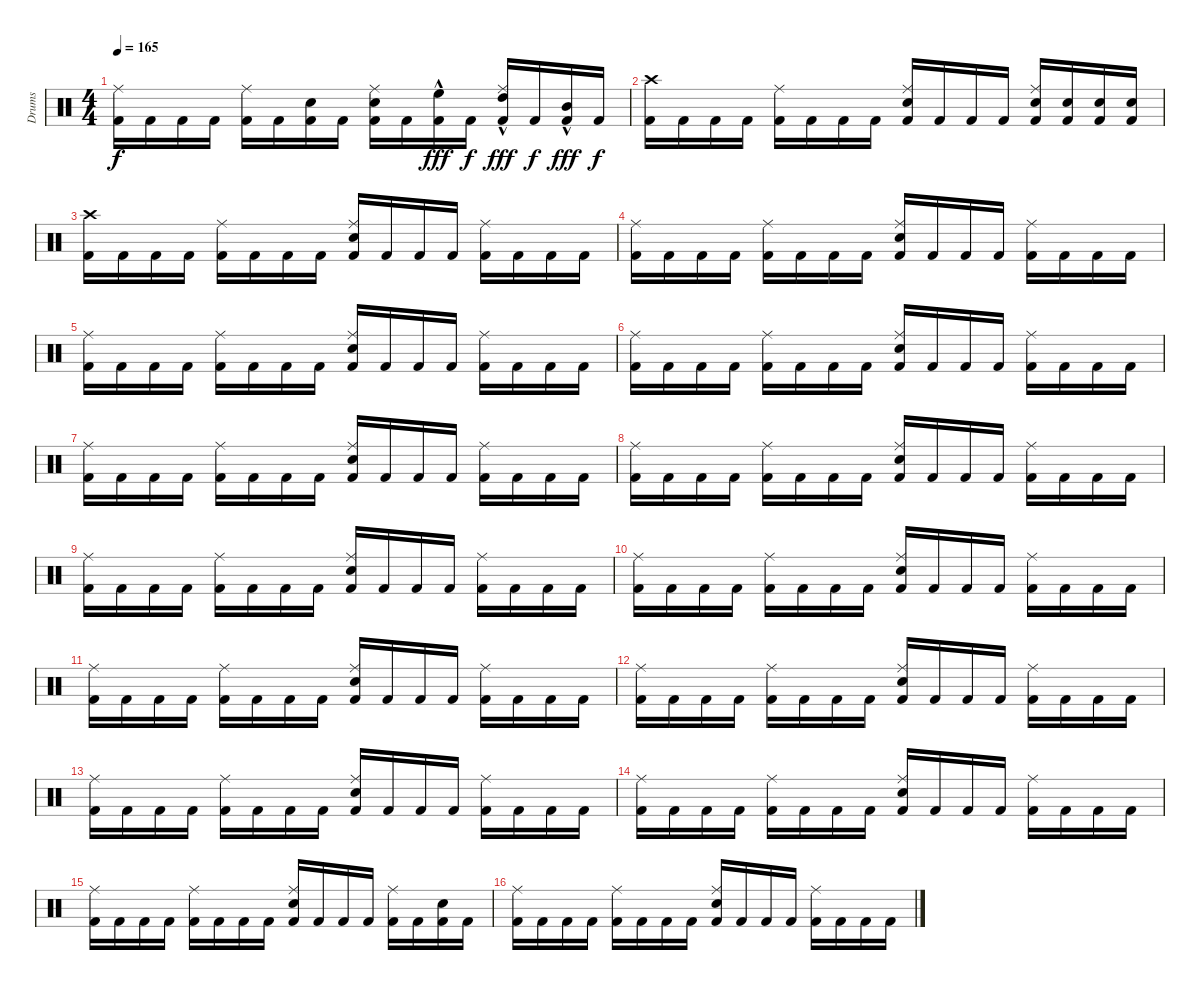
\track ("Drums" "Drums") {instrument percussion}
\staff {score}
\articulation defaults
\ts (4 4)
\tempo 165
\clef neutral
\ks aminor
("Kick (hit) 2" "Ride (middle)").16{dy f} "Kick (hit) 2".16 "Kick (hit) 2".16 "Kick (hit) 2".16 ("Kick (hit) 2" "Ride (middle)").16 "Kick (hit) 2".16 ("Kick (hit) 2" "Electric Snare (hit)").16 "Kick (hit) 2".16 ("Kick (hit) 2" "Electric Snare (hit)" "Ride (middle)").16 "Kick (hit) 2".16 ("Kick (hit) 2" "High Floor Tom (hit)"{hac}).16{dy fff} "Kick (hit) 2".16{dy f} ("Kick (hit) 2" "Ride (middle)" "High Tom (hit)"{hac}).16{dy fff} "Kick (hit) 2".16{dy f} ("Kick (hit) 2" "Mid Tom (hit)"{hac}).16{dy fff} "Kick (hit) 2".16{dy f} |
("Kick (hit) 2" "Crash high (hit)").16 "Kick (hit) 2".16 "Kick (hit) 2".16 "Kick (hit) 2".16 ("Kick (hit) 2" "Ride (middle)").16 "Kick (hit) 2".16 "Kick (hit) 2".16 "Kick (hit) 2".16 ("Kick (hit) 2" "Electric Snare (hit)" "Ride (middle)").16 "Kick (hit) 2".16 "Kick (hit) 2".16 "Kick (hit) 2".16 ("Kick (hit) 2" "Electric Snare (hit)" "Ride (middle)").16 ("Kick (hit) 2" "Electric Snare (hit)").16 ("Kick (hit) 2" "Electric Snare (hit)").16 ("Kick (hit) 2" "Electric Snare (hit)").16 |
("Kick (hit) 2" "Crash high (hit)").16 "Kick (hit) 2".16 "Kick (hit) 2".16 "Kick (hit) 2".16 ("Kick (hit) 2" "Ride (middle)").16 "Kick (hit) 2".16 "Kick (hit) 2".16 "Kick (hit) 2".16 ("Kick (hit) 2" "Electric Snare (hit)" "Ride (middle)").16 "Kick (hit) 2".16 "Kick (hit) 2".16 "Kick (hit) 2".16 ("Kick (hit) 2" "Ride (middle)").16 "Kick (hit) 2".16 "Kick (hit) 2".16 "Kick (hit) 2".16 |
("Kick (hit) 2" "Ride (middle)").16 "Kick (hit) 2".16 "Kick (hit) 2".16 "Kick (hit) 2".16 ("Kick (hit) 2" "Ride (middle)").16 "Kick (hit) 2".16 "Kick (hit) 2".16 "Kick (hit) 2".16 ("Kick (hit) 2" "Electric Snare (hit)" "Ride (middle)").16 "Kick (hit) 2".16 "Kick (hit) 2".16 "Kick (hit) 2".16 ("Kick (hit) 2" "Ride (middle)").16 "Kick (hit) 2".16 "Kick (hit) 2".16 "Kick (hit) 2".16 |
("Kick (hit) 2" "Ride (middle)").16 "Kick (hit) 2".16 "Kick (hit) 2".16 "Kick (hit) 2".16 ("Kick (hit) 2" "Ride (middle)").16 "Kick (hit) 2".16 "Kick (hit) 2".16 "Kick (hit) 2".16 ("Kick (hit) 2" "Electric Snare (hit)" "Ride (middle)").16 "Kick (hit) 2".16 "Kick (hit) 2".16 "Kick (hit) 2".16 ("Kick (hit) 2" "Ride (middle)").16 "Kick (hit) 2".16 "Kick (hit) 2".16 "Kick (hit) 2".16 |
("Kick (hit) 2" "Ride (middle)").16 "Kick (hit) 2".16 "Kick (hit) 2".16 "Kick (hit) 2".16 ("Kick (hit) 2" "Ride (middle)").16 "Kick (hit) 2".16 "Kick (hit) 2".16 "Kick (hit) 2".16 ("Kick (hit) 2" "Electric Snare (hit)" "Ride (middle)").16 "Kick (hit) 2".16 "Kick (hit) 2".16 "Kick (hit) 2".16 ("Kick (hit) 2" "Ride (middle)").16 "Kick (hit) 2".16 "Kick (hit) 2".16 "Kick (hit) 2".16 |
("Kick (hit) 2" "Ride (middle)").16 "Kick (hit) 2".16 "Kick (hit) 2".16 "Kick (hit) 2".16 ("Kick (hit) 2" "Ride (middle)").16 "Kick (hit) 2".16 "Kick (hit) 2".16 "Kick (hit) 2".16 ("Kick (hit) 2" "Electric Snare (hit)" "Ride (middle)").16 "Kick (hit) 2".16 "Kick (hit) 2".16 "Kick (hit) 2".16 ("Kick (hit) 2" "Ride (middle)").16 "Kick (hit) 2".16 "Kick (hit) 2".16 "Kick (hit) 2".16 |
("Kick (hit) 2" "Ride (middle)").16 "Kick (hit) 2".16 "Kick (hit) 2".16 "Kick (hit) 2".16 ("Kick (hit) 2" "Ride (middle)").16 "Kick (hit) 2".16 "Kick (hit) 2".16 "Kick (hit) 2".16 ("Kick (hit) 2" "Electric Snare (hit)" "Ride (middle)").16 "Kick (hit) 2".16 "Kick (hit) 2".16 "Kick (hit) 2".16 ("Kick (hit) 2" "Ride (middle)").16 "Kick (hit) 2".16 "Kick (hit) 2".16 "Kick (hit) 2".16 |
("Kick (hit) 2" "Ride (middle)").16 "Kick (hit) 2".16 "Kick (hit) 2".16 "Kick (hit) 2".16 ("Kick (hit) 2" "Ride (middle)").16 "Kick (hit) 2".16 "Kick (hit) 2".16 "Kick (hit) 2".16 ("Kick (hit) 2" "Electric Snare (hit)" "Ride (middle)").16 "Kick (hit) 2".16 "Kick (hit) 2".16 "Kick (hit) 2".16 ("Kick (hit) 2" "Ride (middle)").16 "Kick (hit) 2".16 "Kick (hit) 2".16 "Kick (hit) 2".16 |
("Kick (hit) 2" "Ride (middle)").16 "Kick (hit) 2".16 "Kick (hit) 2".16 "Kick (hit) 2".16 ("Kick (hit) 2" "Ride (middle)").16 "Kick (hit) 2".16 "Kick (hit) 2".16 "Kick (hit) 2".16 ("Kick (hit) 2" "Electric Snare (hit)" "Ride (middle)").16 "Kick (hit) 2".16 "Kick (hit) 2".16 "Kick (hit) 2".16 ("Kick (hit) 2" "Ride (middle)").16 "Kick (hit) 2".16 "Kick (hit) 2".16 "Kick (hit) 2".16 |
("Kick (hit) 2" "Ride (middle)").16 "Kick (hit) 2".16 "Kick (hit) 2".16 "Kick (hit) 2".16 ("Kick (hit) 2" "Ride (middle)").16 "Kick (hit) 2".16 "Kick (hit) 2".16 "Kick (hit) 2".16 ("Kick (hit) 2" "Electric Snare (hit)" "Ride (middle)").16 "Kick (hit) 2".16 "Kick (hit) 2".16 "Kick (hit) 2".16 ("Kick (hit) 2" "Ride (middle)").16 "Kick (hit) 2".16 "Kick (hit) 2".16 "Kick (hit) 2".16 |
("Kick (hit) 2" "Ride (middle)").16 "Kick (hit) 2".16 "Kick (hit) 2".16 "Kick (hit) 2".16 ("Kick (hit) 2" "Ride (middle)").16 "Kick (hit) 2".16 "Kick (hit) 2".16 "Kick (hit) 2".16 ("Kick (hit) 2" "Electric Snare (hit)" "Ride (middle)").16 "Kick (hit) 2".16 "Kick (hit) 2".16 "Kick (hit) 2".16 ("Kick (hit) 2" "Ride (middle)").16 "Kick (hit) 2".16 "Kick (hit) 2".16 "Kick (hit) 2".16 |
("Kick (hit) 2" "Ride (middle)").16 "Kick (hit) 2".16 "Kick (hit) 2".16 "Kick (hit) 2".16 ("Kick (hit) 2" "Ride (middle)").16 "Kick (hit) 2".16 "Kick (hit) 2".16 "Kick (hit) 2".16 ("Kick (hit) 2" "Electric Snare (hit)" "Ride (middle)").16 "Kick (hit) 2".16 "Kick (hit) 2".16 "Kick (hit) 2".16 ("Kick (hit) 2" "Ride (middle)").16 "Kick (hit) 2".16 "Kick (hit) 2".16 "Kick (hit) 2".16 |
("Kick (hit) 2" "Ride (middle)").16{volume 10} "Kick (hit) 2".16 "Kick (hit) 2".16 "Kick (hit) 2".16 ("Kick (hit) 2" "Ride (middle)").16 "Kick (hit) 2".16 "Kick (hit) 2".16 "Kick (hit) 2".16 ("Kick (hit) 2" "Electric Snare (hit)" "Ride (middle)").16 "Kick (hit) 2".16 "Kick (hit) 2".16 "Kick (hit) 2".16 ("Kick (hit) 2" "Ride (middle)").16 "Kick (hit) 2".16 "Kick (hit) 2".16 "Kick (hit) 2".16 |
("Kick (hit) 2" "Ride (middle)").16 "Kick (hit) 2".16 "Kick (hit) 2".16 "Kick (hit) 2".16 ("Kick (hit) 2" "Ride (middle)").16 "Kick (hit) 2".16 "Kick (hit) 2".16 "Kick (hit) 2".16 ("Kick (hit) 2" "Electric Snare (hit)" "Ride (middle)").16 "Kick (hit) 2".16 "Kick (hit) 2".16 "Kick (hit) 2".16 ("Kick (hit) 2" "Ride (middle)").16 "Kick (hit) 2".16 ("Kick (hit) 2" "Electric Snare (hit)").16 "Kick (hit) 2".16 |
("Kick (hit) 2" "Ride (middle)").16 "Kick (hit) 2".16 "Kick (hit) 2".16 "Kick (hit) 2".16 ("Kick (hit) 2" "Ride (middle)").16 "Kick (hit) 2".16 "Kick (hit) 2".16 "Kick (hit) 2".16 ("Kick (hit) 2" "Electric Snare (hit)" "Ride (middle)").16 "Kick (hit) 2".16 "Kick (hit) 2".16 "Kick (hit) 2".16 ("Kick (hit) 2" "Ride (middle)").16 "Kick (hit) 2".16 "Kick (hit) 2".16 "Kick (hit) 2".16
